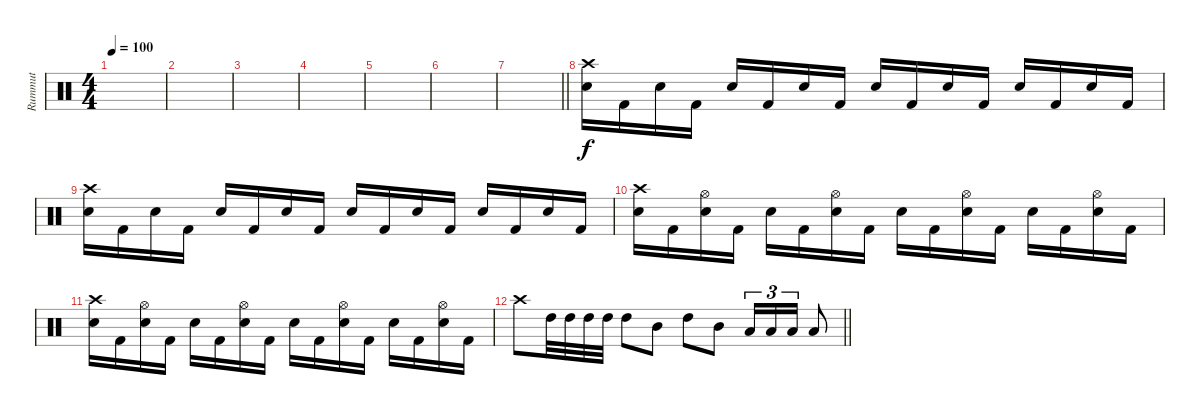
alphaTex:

\track ("Rummut" "Rummut") {instrument percussion}
\staff {score}
\articulation defaults
\ts (4 4)
\tempo 100
\clef neutral
\ks c
|
|
|
|
|
|
\barLineRight lightlight
|
("Crash high (hit)" "Snare (hit) 2").16 "Kick (hit) 2".16 "Snare (hit) 2".16 "Kick (hit) 2".16 "Snare (hit) 2".16 "Kick (hit) 2".16 "Snare (hit) 2".16 "Kick (hit) 2".16 "Snare (hit) 2".16 "Kick (hit) 2".16 "Snare (hit) 2".16 "Kick (hit) 2".16 "Snare (hit) 2".16 "Kick (hit) 2".16 "Snare (hit) 2".16 "Kick (hit) 2".16 |
("Crash high (hit)" "Snare (hit) 2").16 "Kick (hit) 2".16 "Snare (hit) 2".16 "Kick (hit) 2".16 "Snare (hit) 2".16 "Kick (hit) 2".16 "Snare (hit) 2".16 "Kick (hit) 2".16 "Snare (hit) 2".16 "Kick (hit) 2".16 "Snare (hit) 2".16 "Kick (hit) 2".16 "Snare (hit) 2".16 "Kick (hit) 2".16 "Snare (hit) 2".16 "Kick (hit) 2".16 |
("Crash high (hit)" "Snare (hit) 2").16 "Kick (hit) 2".16 ("Hi-Hat (open)" "Snare (hit) 2").16 "Kick (hit) 2".16 "Snare (hit) 2".16 "Kick (hit) 2".16 ("Hi-Hat (open)" "Snare (hit) 2").16 "Kick (hit) 2".16 "Snare (hit) 2".16 "Kick (hit) 2".16 ("Hi-Hat (open)" "Snare (hit) 2").16 "Kick (hit) 2".16 "Snare (hit) 2".16 "Kick (hit) 2".16 ("Hi-Hat (open)" "Snare (hit) 2").16 "Kick (hit) 2".16 |
("Crash high (hit)" "Snare (hit) 2").16 "Kick (hit) 2".16 ("Hi-Hat (open)" "Snare (hit) 2").16 "Kick (hit) 2".16 "Snare (hit) 2".16 "Kick (hit) 2".16 ("Hi-Hat (open)" "Snare (hit) 2").16 "Kick (hit) 2".16 "Snare (hit) 2".16 "Kick (hit) 2".16 ("Hi-Hat (open)" "Snare (hit) 2").16 "Kick (hit) 2".16 "Snare (hit) 2".16 "Kick (hit) 2".16 ("Hi-Hat (open)" "Snare (hit) 2").16 "Kick (hit) 2".16 |
\barLineRight lightlight "Crash high (hit)".8 "High Tom (hit)".32 "High Tom (hit)".32 "High Tom (hit)".32 "High Tom (hit)".32 "High Tom (hit)".8 "Mid Tom (hit)".8 "High Tom (hit)".8 "Mid Tom (hit)".8 "Low Tom (hit)".16{tu (3 2)} "Low Tom (hit)".16{tu (3 2)} "Low Tom (hit)".16{tu (3 2)} "Low Tom (hit)".8
